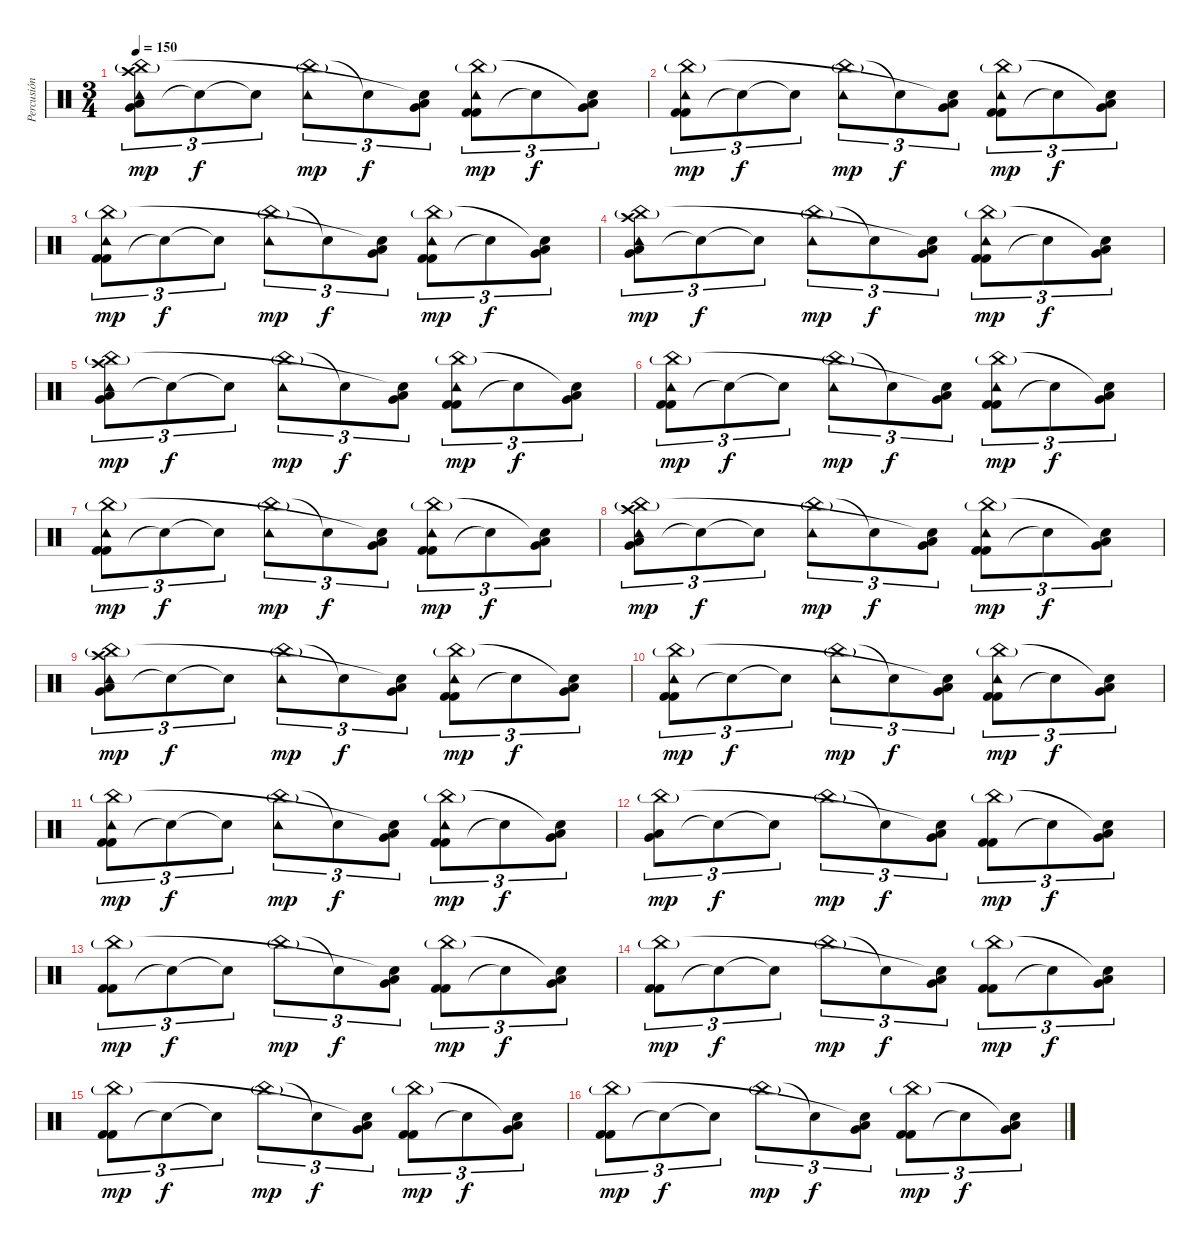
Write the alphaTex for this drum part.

\track ("Percusión" "Percusión") {instrument percussion}
\staff {score}
\articulation defaults
\ts (3 4)
\tempo 150
\clef neutral
\ks c
("Low Floor Tom (hit)" "Very Low Tom (hit)" "China (hit)"{g} "Crash high (hit)" "Tambourine (hit)").8{tu (3 2) dy mp} "Snare (hit)"{t}.8{tu (3 2) dy f} "Snare (hit)"{t}.8{tu (3 2)} ("China (hit)"{g} "Tambourine (hit)").8{tu (3 2) dy mp} "Snare (hit)"{t}.8{tu (3 2) dy f} ("Low Floor Tom (hit)" "Very Low Tom (hit)" "Snare (hit)"{t}).8{tu (3 2)} ("Kick (hit) 2" "Kick (hit) 2" "China (hit)"{g} "Tambourine (hit)").8{tu (3 2) dy mp} "Snare (hit)"{t}.8{tu (3 2) dy f} ("Low Floor Tom (hit)" "Very Low Tom (hit)" "Snare (hit)"{t}).8{tu (3 2)} |
("Kick (hit) 2" "Kick (hit) 2" "China (hit)"{g} "Tambourine (hit)").8{tu (3 2) dy mp} "Snare (hit)"{t}.8{tu (3 2) dy f} "Snare (hit)"{t}.8{tu (3 2)} ("China (hit)"{g} "Tambourine (hit)").8{tu (3 2) dy mp} "Snare (hit)"{t}.8{tu (3 2) dy f} ("Low Floor Tom (hit)" "Very Low Tom (hit)" "Snare (hit)"{t}).8{tu (3 2)} ("Kick (hit) 2" "Kick (hit) 2" "China (hit)"{g} "Tambourine (hit)").8{tu (3 2) dy mp} "Snare (hit)"{t}.8{tu (3 2) dy f} ("Low Floor Tom (hit)" "Very Low Tom (hit)" "Snare (hit)"{t}).8{tu (3 2)} |
("Kick (hit) 2" "Kick (hit) 2" "China (hit)"{g} "Tambourine (hit)").8{tu (3 2) dy mp} "Snare (hit)"{t}.8{tu (3 2) dy f} "Snare (hit)"{t}.8{tu (3 2)} ("China (hit)"{g} "Tambourine (hit)").8{tu (3 2) dy mp} "Snare (hit)"{t}.8{tu (3 2) dy f} ("Low Floor Tom (hit)" "Very Low Tom (hit)" "Snare (hit)"{t}).8{tu (3 2)} ("Kick (hit) 2" "Kick (hit) 2" "China (hit)"{g} "Tambourine (hit)").8{tu (3 2) dy mp} "Snare (hit)"{t}.8{tu (3 2) dy f} ("Low Floor Tom (hit)" "Very Low Tom (hit)" "Snare (hit)"{t}).8{tu (3 2)} |
("Low Floor Tom (hit)" "Very Low Tom (hit)" "China (hit)"{g} "Crash high (hit)" "Tambourine (hit)").8{tu (3 2) dy mp} "Snare (hit)"{t}.8{tu (3 2) dy f} "Snare (hit)"{t}.8{tu (3 2)} ("China (hit)"{g} "Tambourine (hit)").8{tu (3 2) dy mp} "Snare (hit)"{t}.8{tu (3 2) dy f} ("Low Floor Tom (hit)" "Very Low Tom (hit)" "Snare (hit)"{t}).8{tu (3 2)} ("Kick (hit) 2" "Kick (hit) 2" "China (hit)"{g} "Tambourine (hit)").8{tu (3 2) dy mp} "Snare (hit)"{t}.8{tu (3 2) dy f} ("Low Floor Tom (hit)" "Very Low Tom (hit)" "Snare (hit)"{t}).8{tu (3 2)} |
("Low Floor Tom (hit)" "Very Low Tom (hit)" "China (hit)"{g} "Crash high (hit)" "Tambourine (hit)").8{tu (3 2) dy mp} "Snare (hit)"{t}.8{tu (3 2) dy f} "Snare (hit)"{t}.8{tu (3 2)} ("China (hit)"{g} "Tambourine (hit)").8{tu (3 2) dy mp} "Snare (hit)"{t}.8{tu (3 2) dy f} ("Low Floor Tom (hit)" "Very Low Tom (hit)" "Snare (hit)"{t}).8{tu (3 2)} ("Kick (hit) 2" "Kick (hit) 2" "China (hit)"{g} "Tambourine (hit)").8{tu (3 2) dy mp} "Snare (hit)"{t}.8{tu (3 2) dy f} ("Low Floor Tom (hit)" "Very Low Tom (hit)" "Snare (hit)"{t}).8{tu (3 2)} |
("Kick (hit) 2" "Kick (hit) 2" "China (hit)"{g} "Tambourine (hit)").8{tu (3 2) dy mp} "Snare (hit)"{t}.8{tu (3 2) dy f} "Snare (hit)"{t}.8{tu (3 2)} ("China (hit)"{g} "Tambourine (hit)").8{tu (3 2) dy mp} "Snare (hit)"{t}.8{tu (3 2) dy f} ("Low Floor Tom (hit)" "Very Low Tom (hit)" "Snare (hit)"{t}).8{tu (3 2)} ("Kick (hit) 2" "Kick (hit) 2" "China (hit)"{g} "Tambourine (hit)").8{tu (3 2) dy mp} "Snare (hit)"{t}.8{tu (3 2) dy f} ("Low Floor Tom (hit)" "Very Low Tom (hit)" "Snare (hit)"{t}).8{tu (3 2)} |
("Kick (hit) 2" "Kick (hit) 2" "China (hit)"{g} "Tambourine (hit)").8{tu (3 2) dy mp} "Snare (hit)"{t}.8{tu (3 2) dy f} "Snare (hit)"{t}.8{tu (3 2)} ("China (hit)"{g} "Tambourine (hit)").8{tu (3 2) dy mp} "Snare (hit)"{t}.8{tu (3 2) dy f} ("Low Floor Tom (hit)" "Very Low Tom (hit)" "Snare (hit)"{t}).8{tu (3 2)} ("Kick (hit) 2" "Kick (hit) 2" "China (hit)"{g} "Tambourine (hit)").8{tu (3 2) dy mp} "Snare (hit)"{t}.8{tu (3 2) dy f} ("Low Floor Tom (hit)" "Very Low Tom (hit)" "Snare (hit)"{t}).8{tu (3 2)} |
("Low Floor Tom (hit)" "Very Low Tom (hit)" "China (hit)"{g} "Crash high (hit)" "Tambourine (hit)").8{tu (3 2) dy mp} "Snare (hit)"{t}.8{tu (3 2) dy f} "Snare (hit)"{t}.8{tu (3 2)} ("China (hit)"{g} "Tambourine (hit)").8{tu (3 2) dy mp} "Snare (hit)"{t}.8{tu (3 2) dy f} ("Low Floor Tom (hit)" "Very Low Tom (hit)" "Snare (hit)"{t}).8{tu (3 2)} ("Kick (hit) 2" "Kick (hit) 2" "China (hit)"{g} "Tambourine (hit)").8{tu (3 2) dy mp} "Snare (hit)"{t}.8{tu (3 2) dy f} ("Low Floor Tom (hit)" "Very Low Tom (hit)" "Snare (hit)"{t}).8{tu (3 2)} |
("Low Floor Tom (hit)" "Very Low Tom (hit)" "China (hit)"{g} "Crash high (hit)" "Tambourine (hit)").8{tu (3 2) dy mp} "Snare (hit)"{t}.8{tu (3 2) dy f} "Snare (hit)"{t}.8{tu (3 2)} ("China (hit)"{g} "Tambourine (hit)").8{tu (3 2) dy mp} "Snare (hit)"{t}.8{tu (3 2) dy f} ("Low Floor Tom (hit)" "Very Low Tom (hit)" "Snare (hit)"{t}).8{tu (3 2)} ("Kick (hit) 2" "Kick (hit) 2" "China (hit)"{g} "Tambourine (hit)").8{tu (3 2) dy mp} "Snare (hit)"{t}.8{tu (3 2) dy f} ("Low Floor Tom (hit)" "Very Low Tom (hit)" "Snare (hit)"{t}).8{tu (3 2)} |
("Kick (hit) 2" "Kick (hit) 2" "China (hit)"{g} "Tambourine (hit)").8{tu (3 2) dy mp} "Snare (hit)"{t}.8{tu (3 2) dy f} "Snare (hit)"{t}.8{tu (3 2)} ("China (hit)"{g} "Tambourine (hit)").8{tu (3 2) dy mp} "Snare (hit)"{t}.8{tu (3 2) dy f} ("Low Floor Tom (hit)" "Very Low Tom (hit)" "Snare (hit)"{t}).8{tu (3 2)} ("Kick (hit) 2" "Kick (hit) 2" "China (hit)"{g} "Tambourine (hit)").8{tu (3 2) dy mp} "Snare (hit)"{t}.8{tu (3 2) dy f} ("Low Floor Tom (hit)" "Very Low Tom (hit)" "Snare (hit)"{t}).8{tu (3 2)} |
("Kick (hit) 2" "Kick (hit) 2" "China (hit)"{g} "Tambourine (hit)").8{tu (3 2) dy mp} "Snare (hit)"{t}.8{tu (3 2) dy f} "Snare (hit)"{t}.8{tu (3 2)} ("China (hit)"{g} "Tambourine (hit)").8{tu (3 2) dy mp} "Snare (hit)"{t}.8{tu (3 2) dy f} ("Low Floor Tom (hit)" "Very Low Tom (hit)" "Snare (hit)"{t}).8{tu (3 2)} ("Kick (hit) 2" "Kick (hit) 2" "China (hit)"{g} "Tambourine (hit)").8{tu (3 2) dy mp} "Snare (hit)"{t}.8{tu (3 2) dy f} ("Low Floor Tom (hit)" "Very Low Tom (hit)" "Snare (hit)"{t}).8{tu (3 2)} |
("Low Floor Tom (hit)" "Very Low Tom (hit)" "China (hit)"{g}).8{tu (3 2) dy mp} "Snare (hit)"{t}.8{tu (3 2) dy f} "Snare (hit)"{t}.8{tu (3 2)} "China (hit)"{g}.8{tu (3 2) dy mp} "Snare (hit)"{t}.8{tu (3 2) dy f} ("Low Floor Tom (hit)" "Very Low Tom (hit)" "Snare (hit)"{t}).8{tu (3 2)} ("Kick (hit) 2" "Kick (hit) 2" "China (hit)"{g}).8{tu (3 2) dy mp} "Snare (hit)"{t}.8{tu (3 2) dy f} ("Low Floor Tom (hit)" "Very Low Tom (hit)" "Snare (hit)"{t}).8{tu (3 2)} |
("Kick (hit) 2" "Kick (hit) 2" "China (hit)"{g}).8{tu (3 2) dy mp} "Snare (hit)"{t}.8{tu (3 2) dy f} "Snare (hit)"{t}.8{tu (3 2)} "China (hit)"{g}.8{tu (3 2) dy mp} "Snare (hit)"{t}.8{tu (3 2) dy f} ("Low Floor Tom (hit)" "Very Low Tom (hit)" "Snare (hit)"{t}).8{tu (3 2)} ("Kick (hit) 2" "Kick (hit) 2" "China (hit)"{g}).8{tu (3 2) dy mp} "Snare (hit)"{t}.8{tu (3 2) dy f} ("Low Floor Tom (hit)" "Very Low Tom (hit)" "Snare (hit)"{t}).8{tu (3 2)} |
("Kick (hit) 2" "Kick (hit) 2" "China (hit)"{g}).8{tu (3 2) dy mp} "Snare (hit)"{t}.8{tu (3 2) dy f} "Snare (hit)"{t}.8{tu (3 2)} "China (hit)"{g}.8{tu (3 2) dy mp} "Snare (hit)"{t}.8{tu (3 2) dy f} ("Low Floor Tom (hit)" "Very Low Tom (hit)" "Snare (hit)"{t}).8{tu (3 2)} ("Kick (hit) 2" "Kick (hit) 2" "China (hit)"{g}).8{tu (3 2) dy mp} "Snare (hit)"{t}.8{tu (3 2) dy f} ("Low Floor Tom (hit)" "Very Low Tom (hit)" "Snare (hit)"{t}).8{tu (3 2)} |
("Kick (hit) 2" "Kick (hit) 2" "China (hit)"{g}).8{tu (3 2) dy mp} "Snare (hit)"{t}.8{tu (3 2) dy f} "Snare (hit)"{t}.8{tu (3 2)} "China (hit)"{g}.8{tu (3 2) dy mp} "Snare (hit)"{t}.8{tu (3 2) dy f} ("Low Floor Tom (hit)" "Very Low Tom (hit)" "Snare (hit)"{t}).8{tu (3 2)} ("Kick (hit) 2" "Kick (hit) 2" "China (hit)"{g}).8{tu (3 2) dy mp} "Snare (hit)"{t}.8{tu (3 2) dy f} ("Low Floor Tom (hit)" "Very Low Tom (hit)" "Snare (hit)"{t}).8{tu (3 2)} |
("Kick (hit) 2" "Kick (hit) 2" "China (hit)"{g}).8{tu (3 2) dy mp} "Snare (hit)"{t}.8{tu (3 2) dy f} "Snare (hit)"{t}.8{tu (3 2)} "China (hit)"{g}.8{tu (3 2) dy mp} "Snare (hit)"{t}.8{tu (3 2) dy f} ("Low Floor Tom (hit)" "Very Low Tom (hit)" "Snare (hit)"{t}).8{tu (3 2)} ("Kick (hit) 2" "Kick (hit) 2" "China (hit)"{g}).8{tu (3 2) dy mp} "Snare (hit)"{t}.8{tu (3 2) dy f} ("Low Floor Tom (hit)" "Very Low Tom (hit)" "Snare (hit)"{t}).8{tu (3 2)}
